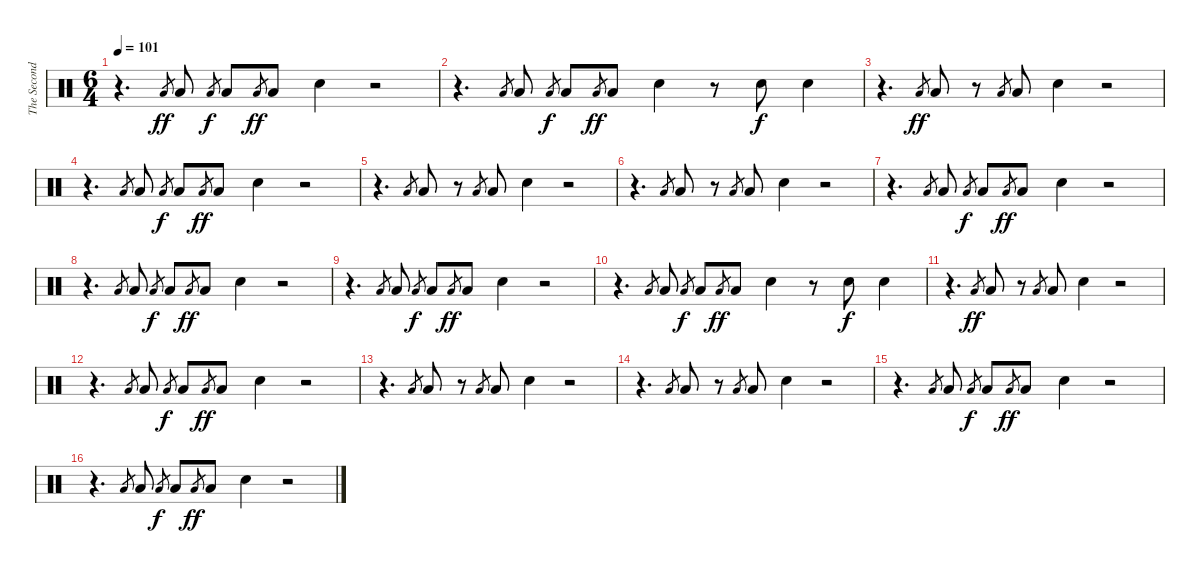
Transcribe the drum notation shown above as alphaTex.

\track ("The Second Drummer" "The Second") {instrument percussion}
\staff {score}
\articulation defaults
\ts (6 4)
\tempo 101
\clef neutral
\ks c
r.4{d dy ff} "Low Floor Tom (hit)".8{gr} "Low Floor Tom (hit)".8 "Low Floor Tom (hit)".8{gr dy f} "Low Floor Tom (hit)".8 "Low Floor Tom (hit)".8{gr dy ff} "Low Floor Tom (hit)".8 "Electric Snare (hit)".4 r.2 |
r.4{d} "Low Floor Tom (hit)".8{gr} "Low Floor Tom (hit)".8 "Low Floor Tom (hit)".8{gr dy f} "Low Floor Tom (hit)".8 "Low Floor Tom (hit)".8{gr dy ff} "Low Floor Tom (hit)".8 "Electric Snare (hit)".4 r.8 "Electric Snare (hit)".8{dy f} "Electric Snare (hit)".4 |
r.4{d} "Low Floor Tom (hit)".8{gr dy ff} "Low Floor Tom (hit)".8 r.8 "Low Floor Tom (hit)".8{gr} "Low Floor Tom (hit)".8 "Electric Snare (hit)".4 r.2 |
r.4{d} "Low Floor Tom (hit)".8{gr} "Low Floor Tom (hit)".8 "Low Floor Tom (hit)".8{gr dy f} "Low Floor Tom (hit)".8 "Low Floor Tom (hit)".8{gr dy ff} "Low Floor Tom (hit)".8 "Electric Snare (hit)".4 r.2 |
r.4{d} "Low Floor Tom (hit)".8{gr} "Low Floor Tom (hit)".8 r.8 "Low Floor Tom (hit)".8{gr} "Low Floor Tom (hit)".8 "Electric Snare (hit)".4 r.2 |
r.4{d} "Low Floor Tom (hit)".8{gr} "Low Floor Tom (hit)".8 r.8 "Low Floor Tom (hit)".8{gr} "Low Floor Tom (hit)".8 "Electric Snare (hit)".4 r.2 |
r.4{d} "Low Floor Tom (hit)".8{gr} "Low Floor Tom (hit)".8 "Low Floor Tom (hit)".8{gr dy f} "Low Floor Tom (hit)".8 "Low Floor Tom (hit)".8{gr dy ff} "Low Floor Tom (hit)".8 "Electric Snare (hit)".4 r.2 |
r.4{d} "Low Floor Tom (hit)".8{gr} "Low Floor Tom (hit)".8 "Low Floor Tom (hit)".8{gr dy f} "Low Floor Tom (hit)".8 "Low Floor Tom (hit)".8{gr dy ff} "Low Floor Tom (hit)".8 "Electric Snare (hit)".4 r.2 |
r.4{d} "Low Floor Tom (hit)".8{gr} "Low Floor Tom (hit)".8 "Low Floor Tom (hit)".8{gr dy f} "Low Floor Tom (hit)".8 "Low Floor Tom (hit)".8{gr dy ff} "Low Floor Tom (hit)".8 "Electric Snare (hit)".4 r.2 |
r.4{d} "Low Floor Tom (hit)".8{gr} "Low Floor Tom (hit)".8 "Low Floor Tom (hit)".8{gr dy f} "Low Floor Tom (hit)".8 "Low Floor Tom (hit)".8{gr dy ff} "Low Floor Tom (hit)".8 "Electric Snare (hit)".4 r.8 "Electric Snare (hit)".8{dy f} "Electric Snare (hit)".4 |
r.4{d} "Low Floor Tom (hit)".8{gr dy ff} "Low Floor Tom (hit)".8 r.8 "Low Floor Tom (hit)".8{gr} "Low Floor Tom (hit)".8 "Electric Snare (hit)".4 r.2 |
r.4{d} "Low Floor Tom (hit)".8{gr} "Low Floor Tom (hit)".8 "Low Floor Tom (hit)".8{gr dy f} "Low Floor Tom (hit)".8 "Low Floor Tom (hit)".8{gr dy ff} "Low Floor Tom (hit)".8 "Electric Snare (hit)".4 r.2 |
r.4{d} "Low Floor Tom (hit)".8{gr} "Low Floor Tom (hit)".8 r.8 "Low Floor Tom (hit)".8{gr} "Low Floor Tom (hit)".8 "Electric Snare (hit)".4 r.2 |
r.4{d} "Low Floor Tom (hit)".8{gr} "Low Floor Tom (hit)".8 r.8 "Low Floor Tom (hit)".8{gr} "Low Floor Tom (hit)".8 "Electric Snare (hit)".4 r.2 |
r.4{d} "Low Floor Tom (hit)".8{gr} "Low Floor Tom (hit)".8 "Low Floor Tom (hit)".8{gr dy f} "Low Floor Tom (hit)".8 "Low Floor Tom (hit)".8{gr dy ff} "Low Floor Tom (hit)".8 "Electric Snare (hit)".4 r.2 |
r.4{d} "Low Floor Tom (hit)".8{gr} "Low Floor Tom (hit)".8 "Low Floor Tom (hit)".8{gr dy f} "Low Floor Tom (hit)".8 "Low Floor Tom (hit)".8{gr dy ff} "Low Floor Tom (hit)".8 "Electric Snare (hit)".4 r.2
